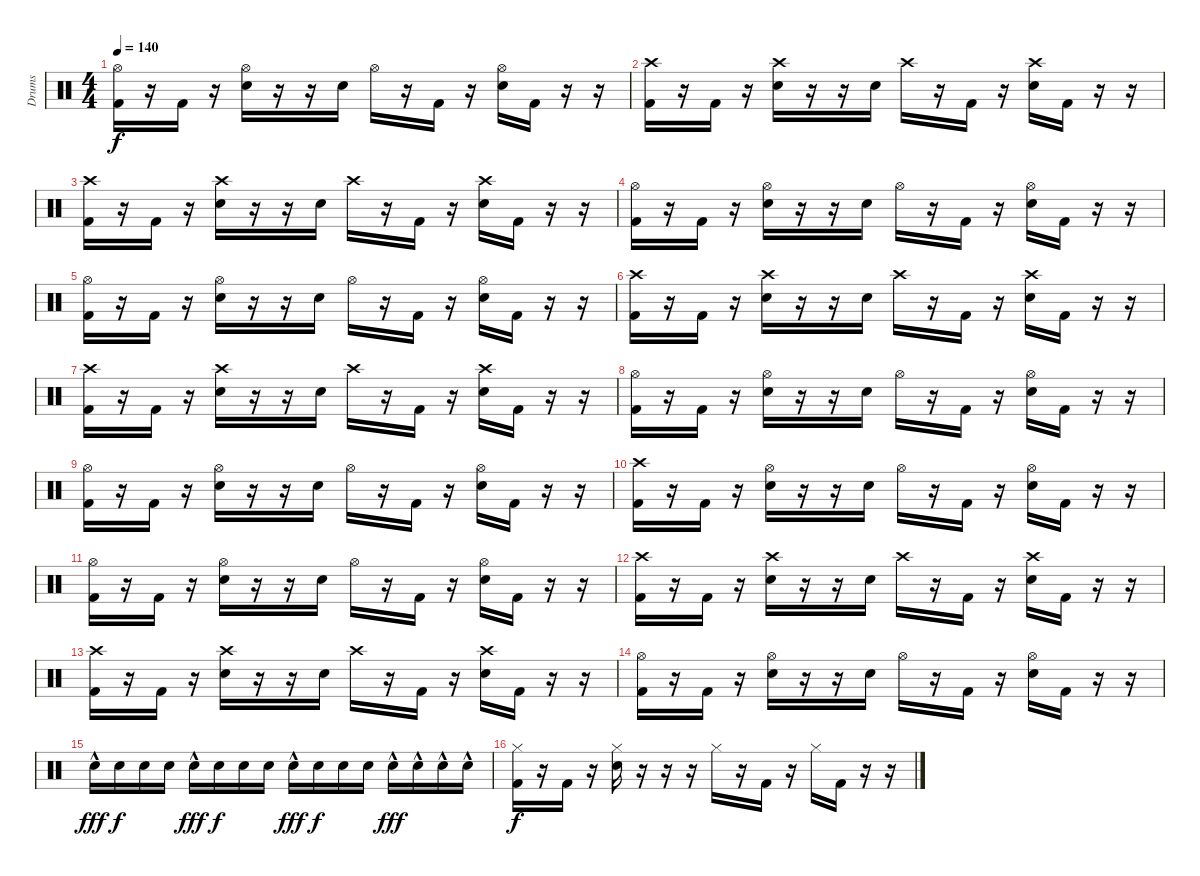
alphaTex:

\track ("Drums" "Drums") {instrument percussion}
\staff {score}
\articulation defaults
\ts (4 4)
\tempo 140
\clef neutral
\ks c
("Hi-Hat (open)" "Kick (hit) 2").16{dy f} r.16 "Kick (hit) 2".16 r.16 ("Hi-Hat (open)" "Electric Snare (hit)").16 r.16 r.16 "Electric Snare (hit)".16 "Hi-Hat (open)".16 r.16 "Kick (hit) 2".16 r.16 ("Hi-Hat (open)" "Electric Snare (hit)").16 "Kick (hit) 2".16 r.16 r.16 |
("Crash high (hit)" "Kick (hit) 2").16 r.16 "Kick (hit) 2".16 r.16 ("Crash high (hit)" "Electric Snare (hit)").16 r.16 r.16 "Electric Snare (hit)".16 "Crash high (hit)".16 r.16 "Kick (hit) 2".16 r.16 ("Crash high (hit)" "Electric Snare (hit)").16 "Kick (hit) 2".16 r.16 r.16 |
("Crash high (hit)" "Kick (hit) 2").16 r.16 "Kick (hit) 2".16 r.16 ("Crash high (hit)" "Electric Snare (hit)").16 r.16 r.16 "Electric Snare (hit)".16 "Crash high (hit)".16 r.16 "Kick (hit) 2".16 r.16 ("Crash high (hit)" "Electric Snare (hit)").16 "Kick (hit) 2".16 r.16 r.16 |
("Hi-Hat (open)" "Kick (hit) 2").16 r.16 "Kick (hit) 2".16 r.16 ("Hi-Hat (open)" "Electric Snare (hit)").16 r.16 r.16 "Electric Snare (hit)".16 "Hi-Hat (open)".16 r.16 "Kick (hit) 2".16 r.16 ("Hi-Hat (open)" "Electric Snare (hit)").16 "Kick (hit) 2".16 r.16 r.16 |
("Hi-Hat (open)" "Kick (hit) 2").16 r.16 "Kick (hit) 2".16 r.16 ("Hi-Hat (open)" "Electric Snare (hit)").16 r.16 r.16 "Electric Snare (hit)".16 "Hi-Hat (open)".16 r.16 "Kick (hit) 2".16 r.16 ("Hi-Hat (open)" "Electric Snare (hit)").16 "Kick (hit) 2".16 r.16 r.16 |
("Crash high (hit)" "Kick (hit) 2").16 r.16 "Kick (hit) 2".16 r.16 ("Crash high (hit)" "Electric Snare (hit)").16 r.16 r.16 "Electric Snare (hit)".16 "Crash high (hit)".16 r.16 "Kick (hit) 2".16 r.16 ("Crash high (hit)" "Electric Snare (hit)").16 "Kick (hit) 2".16 r.16 r.16 |
("Crash high (hit)" "Kick (hit) 2").16 r.16 "Kick (hit) 2".16 r.16 ("Crash high (hit)" "Electric Snare (hit)").16 r.16 r.16 "Electric Snare (hit)".16 "Crash high (hit)".16 r.16 "Kick (hit) 2".16 r.16 ("Crash high (hit)" "Electric Snare (hit)").16 "Kick (hit) 2".16 r.16 r.16 |
("Hi-Hat (open)" "Kick (hit) 2").16 r.16 "Kick (hit) 2".16 r.16 ("Hi-Hat (open)" "Electric Snare (hit)").16 r.16 r.16 "Electric Snare (hit)".16 "Hi-Hat (open)".16 r.16 "Kick (hit) 2".16 r.16 ("Hi-Hat (open)" "Electric Snare (hit)").16 "Kick (hit) 2".16 r.16 r.16 |
("Hi-Hat (open)" "Kick (hit) 2").16 r.16 "Kick (hit) 2".16 r.16 ("Hi-Hat (open)" "Electric Snare (hit)").16 r.16 r.16 "Electric Snare (hit)".16 "Hi-Hat (open)".16 r.16 "Kick (hit) 2".16 r.16 ("Hi-Hat (open)" "Electric Snare (hit)").16 "Kick (hit) 2".16 r.16 r.16 |
("Crash high (hit)" "Kick (hit) 2").16 r.16 "Kick (hit) 2".16 r.16 ("Hi-Hat (open)" "Electric Snare (hit)").16 r.16 r.16 "Electric Snare (hit)".16 "Hi-Hat (open)".16 r.16 "Kick (hit) 2".16 r.16 ("Hi-Hat (open)" "Electric Snare (hit)").16 "Kick (hit) 2".16 r.16 r.16 |
("Hi-Hat (open)" "Kick (hit) 2").16 r.16 "Kick (hit) 2".16 r.16 ("Hi-Hat (open)" "Electric Snare (hit)").16 r.16 r.16 "Electric Snare (hit)".16 "Hi-Hat (open)".16 r.16 "Kick (hit) 2".16 r.16 ("Hi-Hat (open)" "Electric Snare (hit)").16 "Kick (hit) 2".16 r.16 r.16 |
("Crash high (hit)" "Kick (hit) 2").16 r.16 "Kick (hit) 2".16 r.16 ("Crash high (hit)" "Electric Snare (hit)").16 r.16 r.16 "Electric Snare (hit)".16 "Crash high (hit)".16 r.16 "Kick (hit) 2".16 r.16 ("Crash high (hit)" "Electric Snare (hit)").16 "Kick (hit) 2".16 r.16 r.16 |
("Crash high (hit)" "Kick (hit) 2").16 r.16 "Kick (hit) 2".16 r.16 ("Crash high (hit)" "Electric Snare (hit)").16 r.16 r.16 "Electric Snare (hit)".16 "Crash high (hit)".16 r.16 "Kick (hit) 2".16 r.16 ("Crash high (hit)" "Electric Snare (hit)").16 "Kick (hit) 2".16 r.16 r.16 |
("Hi-Hat (open)" "Kick (hit) 2").16 r.16 "Kick (hit) 2".16 r.16 ("Hi-Hat (open)" "Electric Snare (hit)").16 r.16 r.16 "Electric Snare (hit)".16 "Hi-Hat (open)".16 r.16 "Kick (hit) 2".16 r.16 ("Hi-Hat (open)" "Electric Snare (hit)").16 "Kick (hit) 2".16 r.16 r.16 |
"Electric Snare (hit)"{hac}.16{dy fff} "Electric Snare (hit)".16{dy f} "Electric Snare (hit)".16 "Electric Snare (hit)".16 "Electric Snare (hit)"{hac}.16{dy fff} "Electric Snare (hit)".16{dy f} "Electric Snare (hit)".16 "Electric Snare (hit)".16 "Electric Snare (hit)"{hac}.16{dy fff} "Electric Snare (hit)".16{dy f} "Electric Snare (hit)".16 "Electric Snare (hit)".16 "Electric Snare (hit)"{hac}.16{dy fff} "Electric Snare (hit)"{hac}.16 "Electric Snare (hit)"{hac}.16 "Electric Snare (hit)"{hac}.16 |
("Hi-Hat (closed)" "Kick (hit) 2").16{dy f} r.16 "Kick (hit) 2".16 r.16 ("Hi-Hat (closed)" "Electric Snare (hit)").16 r.16 r.16 r.16 "Hi-Hat (closed)".16 r.16 "Kick (hit) 2".16 r.16 "Hi-Hat (closed)".16 "Kick (hit) 2".16 r.16 r.16
